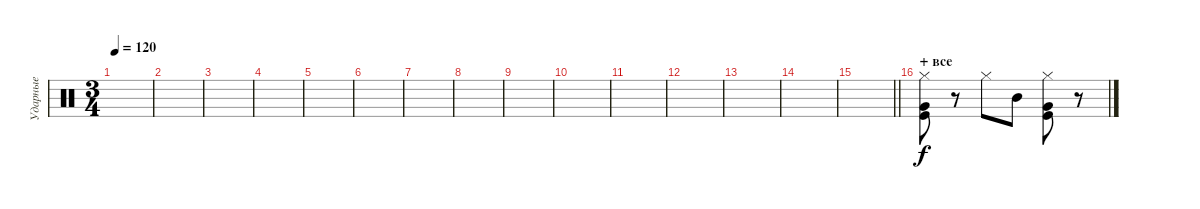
\track ("Ударные" "Ударные") {instrument percussion}
\staff {score}
\articulation defaults
\ts (3 4)
\tempo 120
\clef neutral
\ks c
|
|
|
|
|
|
|
|
|
|
|
|
|
|
\barLineRight lightlight
|
\section ("" "+ все")
("Hi-Hat (closed)" "Very Low Tom (hit)" "Kick (hit)").8 r.8 "Hi-Hat (closed)".8 "Mid Tom (hit)".8 ("Hi-Hat (closed)" "Very Low Tom (hit)" "Kick (hit)").8 r.8
